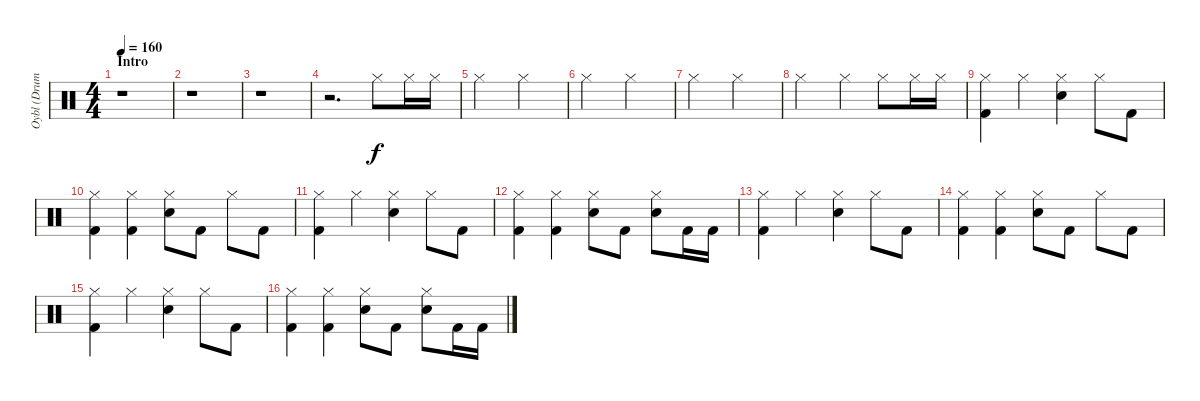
\track ("Oybl (Drums)" "Oybl (Drum") {instrument percussion}
\staff {score}
\articulation defaults
\ts (4 4)
\section ("" "Intro")
\tempo 160
\clef neutral
\ks c
r.1{dy f} |
r.1 |
r.1 |
r.2{d} "Hi-Hat (closed)".8 "Hi-Hat (closed)".16 "Hi-Hat (closed)".16 |
"Hi-Hat (closed)".2 "Hi-Hat (closed)".2 |
"Hi-Hat (closed)".2 "Hi-Hat (closed)".2 |
"Hi-Hat (closed)".2 "Hi-Hat (closed)".2 |
"Hi-Hat (closed)".2 "Hi-Hat (closed)".4 "Hi-Hat (closed)".8 "Hi-Hat (closed)".16 "Hi-Hat (closed)".16 |
("Hi-Hat (closed)" "Kick (hit) 2").4 "Hi-Hat (closed)".4 ("Hi-Hat (closed)" "Snare (hit) 2").4 "Hi-Hat (closed)".8 "Kick (hit) 2".8 |
("Hi-Hat (closed)" "Kick (hit) 2").4 ("Hi-Hat (closed)" "Kick (hit) 2").4 ("Hi-Hat (closed)" "Snare (hit) 2").8 "Kick (hit) 2".8 "Hi-Hat (closed)".8 "Kick (hit) 2".8 |
("Hi-Hat (closed)" "Kick (hit) 2").4 "Hi-Hat (closed)".4 ("Hi-Hat (closed)" "Snare (hit) 2").4 "Hi-Hat (closed)".8 "Kick (hit) 2".8 |
("Hi-Hat (closed)" "Kick (hit) 2").4 ("Hi-Hat (closed)" "Kick (hit) 2").4 ("Hi-Hat (closed)" "Snare (hit) 2").8 "Kick (hit) 2".8 ("Hi-Hat (closed)" "Snare (hit) 2").8 "Kick (hit) 2".16 "Kick (hit) 2".16 |
("Hi-Hat (closed)" "Kick (hit) 2").4 "Hi-Hat (closed)".4 ("Hi-Hat (closed)" "Snare (hit) 2").4 "Hi-Hat (closed)".8 "Kick (hit) 2".8 |
("Hi-Hat (closed)" "Kick (hit) 2").4 ("Hi-Hat (closed)" "Kick (hit) 2").4 ("Hi-Hat (closed)" "Snare (hit) 2").8 "Kick (hit) 2".8 "Hi-Hat (closed)".8 "Kick (hit) 2".8 |
("Hi-Hat (closed)" "Kick (hit) 2").4 "Hi-Hat (closed)".4 ("Hi-Hat (closed)" "Snare (hit) 2").4 "Hi-Hat (closed)".8 "Kick (hit) 2".8 |
("Hi-Hat (closed)" "Kick (hit) 2").4 ("Hi-Hat (closed)" "Kick (hit) 2").4 ("Hi-Hat (closed)" "Snare (hit) 2").8 "Kick (hit) 2".8 ("Hi-Hat (closed)" "Snare (hit) 2").8 "Kick (hit) 2".16 "Kick (hit) 2".16
